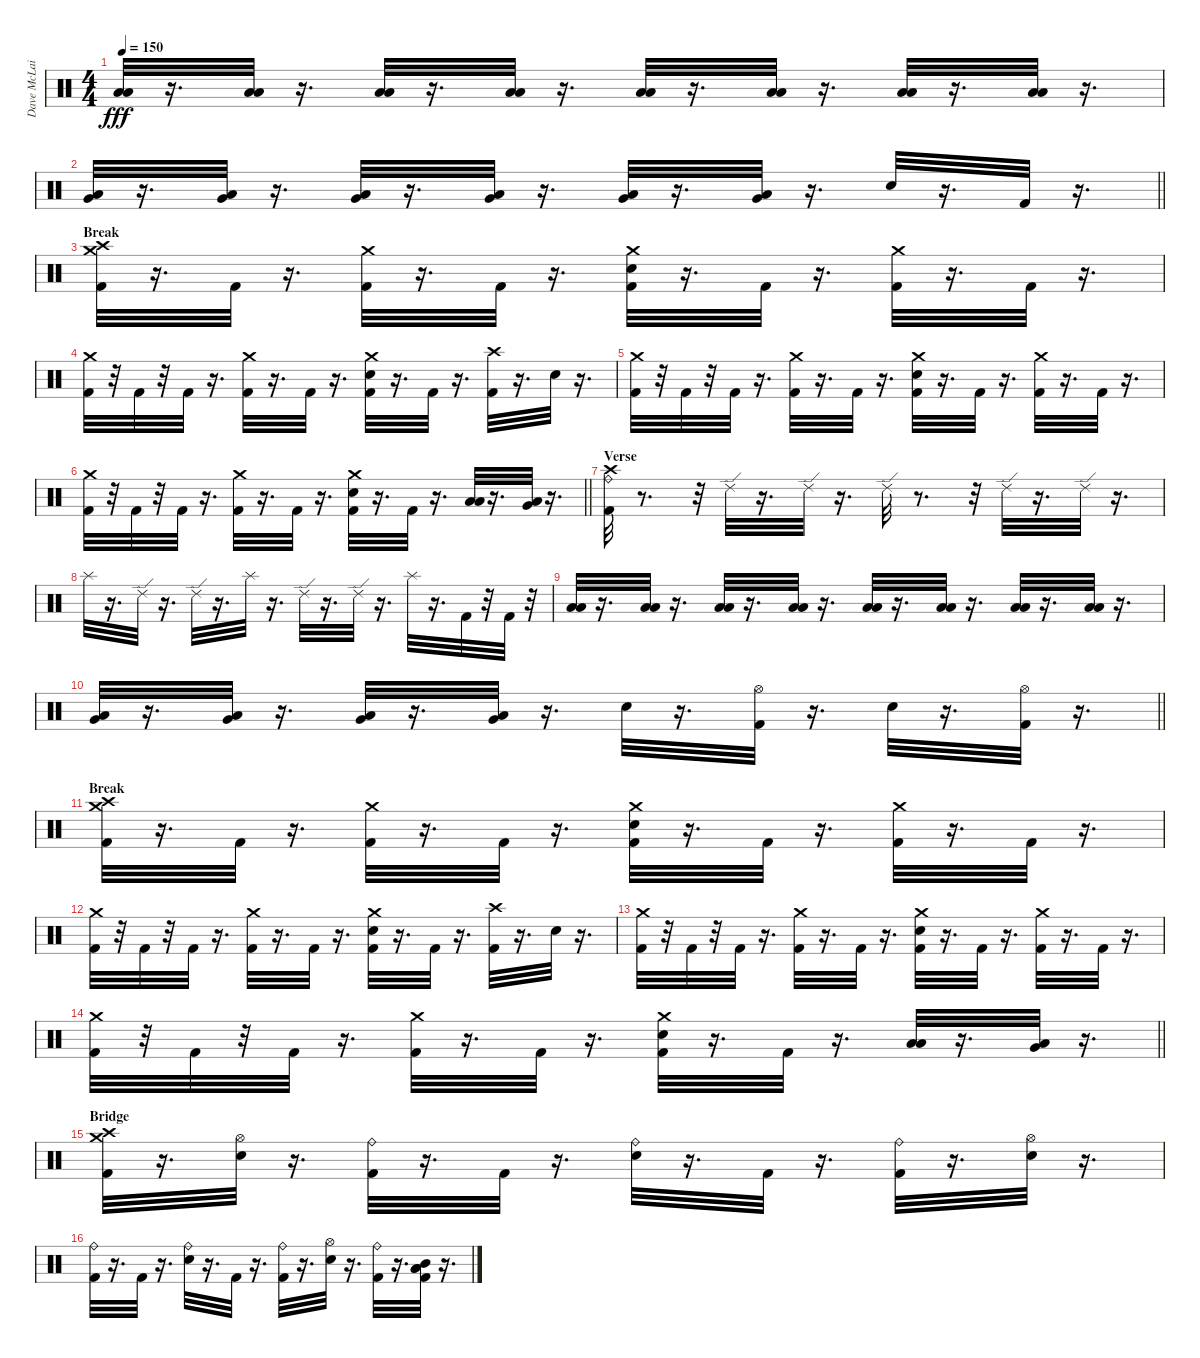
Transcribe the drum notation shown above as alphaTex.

\track ("Dave McLain" "Dave McLai") {instrument percussion}
\staff {score}
\articulation defaults
\ts (4 4)
\tempo 150
\clef neutral
\ks c
("Low Tom (hit)" "Low Floor Tom (hit)").32{dy fff} r.16{d} ("Low Tom (hit)" "Low Floor Tom (hit)").32 r.16{d} ("Low Tom (hit)" "Low Floor Tom (hit)").32 r.16{d} ("Low Tom (hit)" "Low Floor Tom (hit)").32 r.16{d} ("Low Tom (hit)" "Low Floor Tom (hit)").32 r.16{d} ("Low Tom (hit)" "Low Floor Tom (hit)").32 r.16{d} ("Low Tom (hit)" "Low Floor Tom (hit)").32 r.16{d} ("Low Tom (hit)" "Low Floor Tom (hit)").32 r.16{d} |
\barLineRight lightlight
("Very Low Tom (hit)" "Low Floor Tom (hit)").32 r.16{d} ("Very Low Tom (hit)" "Low Floor Tom (hit)").32 r.16{d} ("Very Low Tom (hit)" "Low Floor Tom (hit)").32 r.16{d} ("Very Low Tom (hit)" "Low Floor Tom (hit)").32 r.16{d} ("Very Low Tom (hit)" "Low Floor Tom (hit)").32 r.16{d} ("Very Low Tom (hit)" "Low Floor Tom (hit)").32 r.16{d} "Snare (hit) 2".32 r.16{d} "Kick (hit) 2".32 r.16{d} |
\section ("" "Break")
("Crash medium (hit)" "Crash high (hit)" "Kick (hit) 2").32 r.16{d} "Kick (hit) 2".32 r.16{d} ("Crash medium (hit)" "Kick (hit) 2").32 r.16{d} "Kick (hit) 2".32 r.16{d} ("Snare (hit) 2" "Crash medium (hit)" "Kick (hit) 2").32 r.16{d} "Kick (hit) 2".32 r.16{d} ("Crash medium (hit)" "Kick (hit) 2").32 r.16{d} "Kick (hit) 2".32 r.16{d} |
("Crash medium (hit)" "Kick (hit) 2").32 r.32 "Kick (hit) 2".32 r.32 "Kick (hit) 2".32 r.16{d} ("Crash medium (hit)" "Kick (hit) 2").32 r.16{d} "Kick (hit) 2".32 r.16{d} ("Snare (hit) 2" "Crash medium (hit)" "Kick (hit) 2").32 r.16{d} "Kick (hit) 2".32 r.16{d} ("Crash high (hit)" "Kick (hit) 2").32 r.16{d} "Snare (hit) 2".32 r.16{d} |
("Crash medium (hit)" "Kick (hit) 2").32 r.32 "Kick (hit) 2".32 r.32 "Kick (hit) 2".32 r.16{d} ("Kick (hit) 2" "Crash medium (hit)").32 r.16{d} "Kick (hit) 2".32 r.16{d} ("Snare (hit) 2" "Kick (hit) 2" "Crash medium (hit)").32 r.16{d} "Kick (hit) 2".32 r.16{d} ("Crash medium (hit)" "Kick (hit) 2").32 r.16{d} "Kick (hit) 2".32 r.16{d} |
\barLineRight lightlight
("Crash medium (hit)" "Kick (hit) 2").32 r.32 "Kick (hit) 2".32 r.32 "Kick (hit) 2".32 r.16{d} ("Crash medium (hit)" "Kick (hit) 2").32 r.16{d} "Kick (hit) 2".32 r.16{d} ("Snare (hit) 2" "Crash medium (hit)" "Kick (hit) 2").32 r.16{d} "Kick (hit) 2".32 r.16{d} ("Low Tom (hit)" "Low Floor Tom (hit)").32 r.16{d} ("Low Floor Tom (hit)" "Very Low Tom (hit)").32 r.16{d} |
\section ("" "Verse")
("Ride (bell)" "Crash high (hit)" "Kick (hit) 2").32 r.8{d} r.32 "Ride (edge) 2".32 r.16{d} "Ride (edge) 2".32 r.16{d} "Ride (edge) 2".32 r.8{d} r.32 "Ride (edge) 2".32 r.16{d} "Ride (edge) 2".32 r.16{d} |
"Splash (hit)".32 r.16{d} "Ride (edge) 2".32 r.16{d} "Ride (edge) 2".32 r.16{d} "Splash (hit)".32 r.16{d} "Ride (edge) 2".32 r.16{d} "Ride (edge) 2".32 r.16{d} "Splash (hit)".32 r.16{d} "Kick (hit) 2".32 r.32 "Kick (hit) 2".32 r.32 |
("Low Tom (hit)" "Low Floor Tom (hit)").32 r.16{d} ("Low Tom (hit)" "Low Floor Tom (hit)").32 r.16{d} ("Low Tom (hit)" "Low Floor Tom (hit)").32 r.16{d} ("Low Tom (hit)" "Low Floor Tom (hit)").32 r.16{d} ("Low Tom (hit)" "Low Floor Tom (hit)").32 r.16{d} ("Low Tom (hit)" "Low Floor Tom (hit)").32 r.16{d} ("Low Tom (hit)" "Low Floor Tom (hit)").32 r.16{d} ("Low Tom (hit)" "Low Floor Tom (hit)").32 r.16{d} |
\barLineRight lightlight
("Very Low Tom (hit)" "Low Floor Tom (hit)").32 r.16{d} ("Very Low Tom (hit)" "Low Floor Tom (hit)").32 r.16{d} ("Very Low Tom (hit)" "Low Floor Tom (hit)").32 r.16{d} ("Very Low Tom (hit)" "Low Floor Tom (hit)").32 r.16{d} "Snare (hit) 2".32 r.16{d} ("Hi-Hat (open)" "Kick (hit) 2").32 r.16{d} "Snare (hit) 2".32 r.16{d} ("Hi-Hat (open)" "Kick (hit) 2").32 r.16{d} |
\section ("" "Break")
("Crash medium (hit)" "Crash high (hit)" "Kick (hit) 2").32 r.16{d} "Kick (hit) 2".32 r.16{d} ("Crash medium (hit)" "Kick (hit) 2").32 r.16{d} "Kick (hit) 2".32 r.16{d} ("Snare (hit) 2" "Crash medium (hit)" "Kick (hit) 2").32 r.16{d} "Kick (hit) 2".32 r.16{d} ("Crash medium (hit)" "Kick (hit) 2").32 r.16{d} "Kick (hit) 2".32 r.16{d} |
("Crash medium (hit)" "Kick (hit) 2").32 r.32 "Kick (hit) 2".32 r.32 "Kick (hit) 2".32 r.16{d} ("Crash medium (hit)" "Kick (hit) 2").32 r.16{d} "Kick (hit) 2".32 r.16{d} ("Snare (hit) 2" "Crash medium (hit)" "Kick (hit) 2").32 r.16{d} "Kick (hit) 2".32 r.16{d} ("Crash high (hit)" "Kick (hit) 2").32 r.16{d} "Snare (hit) 2".32 r.16{d} |
("Crash medium (hit)" "Kick (hit) 2").32 r.32 "Kick (hit) 2".32 r.32 "Kick (hit) 2".32 r.16{d} ("Kick (hit) 2" "Crash medium (hit)").32 r.16{d} "Kick (hit) 2".32 r.16{d} ("Snare (hit) 2" "Kick (hit) 2" "Crash medium (hit)").32 r.16{d} "Kick (hit) 2".32 r.16{d} ("Crash medium (hit)" "Kick (hit) 2").32 r.16{d} "Kick (hit) 2".32 r.16{d} |
\barLineRight lightlight
("Crash medium (hit)" "Kick (hit) 2").32 r.32 "Kick (hit) 2".32 r.32 "Kick (hit) 2".32 r.16{d} ("Crash medium (hit)" "Kick (hit) 2").32 r.16{d} "Kick (hit) 2".32 r.16{d} ("Snare (hit) 2" "Crash medium (hit)" "Kick (hit) 2").32 r.16{d} "Kick (hit) 2".32 r.16{d} ("Low Tom (hit)" "Low Floor Tom (hit)").32 r.16{d} ("Low Floor Tom (hit)" "Very Low Tom (hit)").32 r.16{d} |
\section ("" "Bridge")
("Crash medium (hit)" "Crash high (hit)" "Kick (hit) 2").32 r.16{d} ("Hi-Hat (open)" "Snare (hit) 2").32 r.16{d} ("Ride (bell)" "Kick (hit) 2").32 r.16{d} "Kick (hit) 2".32 r.16{d} ("Ride (bell)" "Snare (hit) 2").32 r.16{d} "Kick (hit) 2".32 r.16{d} ("Ride (bell)" "Kick (hit) 2").32 r.16{d} ("Hi-Hat (open)" "Snare (hit) 2").32 r.16{d} |
("Ride (bell)" "Kick (hit) 2").32 r.16{d} "Kick (hit) 2".32 r.16{d} ("Ride (bell)" "Snare (hit) 2").32 r.16{d} "Kick (hit) 2".32 r.16{d} ("Ride (bell)" "Kick (hit) 2").32 r.16{d} ("Hi-Hat (open)" "Snare (hit) 2").32 r.16{d} ("Ride (bell)" "Kick (hit) 2").32 r.16{d} ("Mid Tom (hit)" "Low Tom (hit)" "Low Floor Tom (hit)" "Kick (hit) 2").32 r.16{d}
